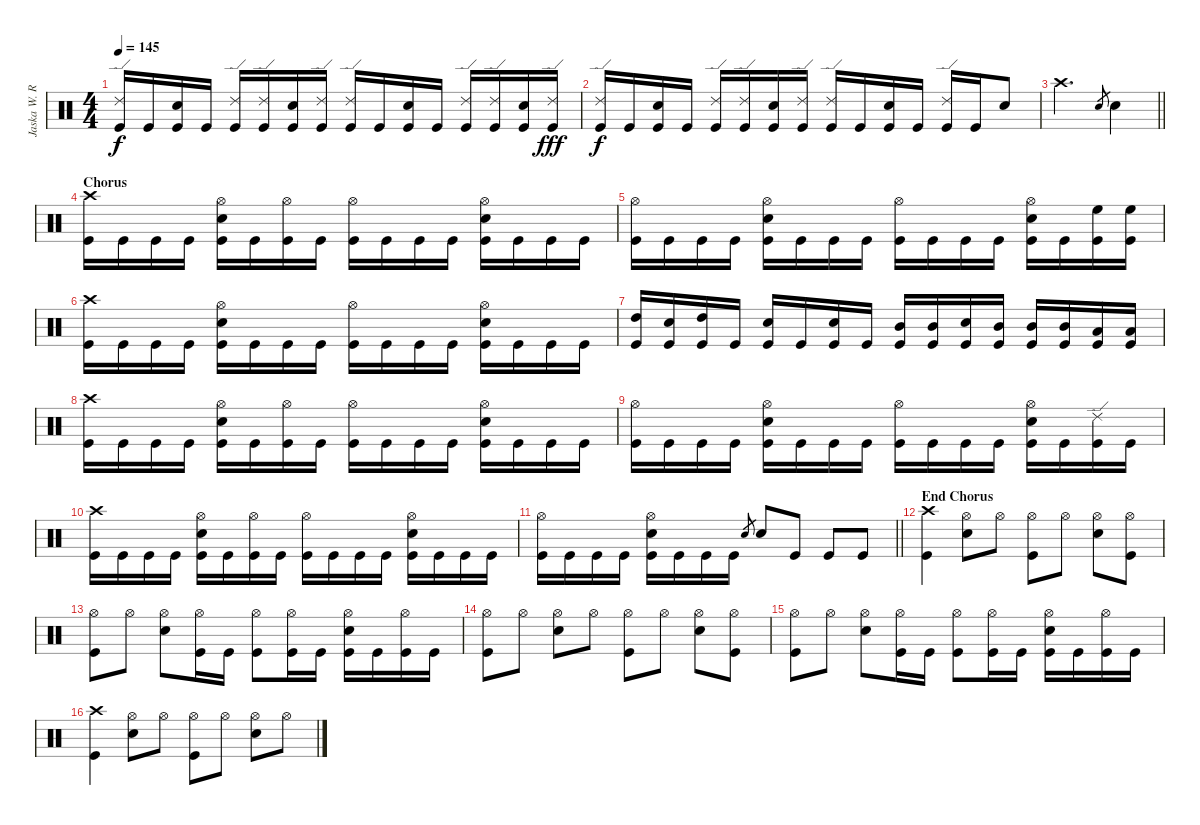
\track ("Jaska W. Raatikainen" "Jaska W. R") {instrument percussion}
\staff {score}
\articulation defaults
\ts (4 4)
\tempo 145
\clef neutral
\ks c
("Ride (edge) 2" "Kick (hit)").16{dy f} "Kick (hit)".16 ("Snare (hit) 2" "Kick (hit)").16 "Kick (hit)".16 ("Ride (edge) 2" "Kick (hit)").16 ("Ride (edge) 2" "Kick (hit)").16 ("Snare (hit) 2" "Kick (hit)").16 ("Ride (edge) 2" "Kick (hit)").16 ("Ride (edge) 2" "Kick (hit)").16 "Kick (hit)".16 ("Snare (hit) 2" "Kick (hit)").16 "Kick (hit)".16 ("Ride (edge) 2" "Kick (hit)").16 ("Ride (edge) 2" "Kick (hit)").16 ("Snare (hit) 2" "Kick (hit)").16 ("Ride (edge) 2" "Kick (hit)").16{dy fff} |
("Ride (edge) 2" "Kick (hit)").16{dy f} "Kick (hit)".16 ("Snare (hit) 2" "Kick (hit)").16 "Kick (hit)".16 ("Ride (edge) 2" "Kick (hit)").16 ("Ride (edge) 2" "Kick (hit)").16 ("Snare (hit) 2" "Kick (hit)").16 ("Ride (edge) 2" "Kick (hit)").16 ("Ride (edge) 2" "Kick (hit)").16 "Kick (hit)".16 ("Snare (hit) 2" "Kick (hit)").16 "Kick (hit)".16 ("Ride (edge) 2" "Kick (hit)").16 "Kick (hit)".16 "Snare (hit) 2".8 |
\barLineRight lightlight "Crash high (hit)".2{d} "Snare (hit) 2".8{gr} "Snare (hit) 2".4
|
\section ("" "Chorus")
("Crash high (hit)" "Kick (hit)").16 "Kick (hit)".16 "Kick (hit)".16 "Kick (hit)".16 ("Hi-Hat (open)" "Snare (hit) 2" "Kick (hit)").16 "Kick (hit)".16 ("Hi-Hat (open)" "Kick (hit)").16 "Kick (hit)".16 ("Hi-Hat (open)" "Kick (hit)").16 "Kick (hit)".16 "Kick (hit)".16 "Kick (hit)".16 ("Hi-Hat (open)" "Snare (hit) 2" "Kick (hit)").16 "Kick (hit)".16 "Kick (hit)".16 "Kick (hit)".16 |
("Hi-Hat (open)" "Kick (hit)").16 "Kick (hit)".16 "Kick (hit)".16 "Kick (hit)".16 ("Hi-Hat (open)" "Snare (hit) 2" "Kick (hit)").16 "Kick (hit)".16 "Kick (hit)".16 "Kick (hit)".16 ("Hi-Hat (open)" "Kick (hit)").16 "Kick (hit)".16 "Kick (hit)".16 "Kick (hit)".16 ("Hi-Hat (open)" "Snare (hit) 2" "Kick (hit)").16 "Kick (hit)".16 ("High Floor Tom (hit)" "Kick (hit)").16 ("High Floor Tom (hit)" "Kick (hit)").16 |
("Crash high (hit)" "Kick (hit)").16 "Kick (hit)".16 "Kick (hit)".16 "Kick (hit)".16 ("Hi-Hat (open)" "Snare (hit) 2" "Kick (hit)").16 "Kick (hit)".16 "Kick (hit)".16 "Kick (hit)".16 ("Hi-Hat (open)" "Kick (hit)").16 "Kick (hit)".16 "Kick (hit)".16 "Kick (hit)".16 ("Hi-Hat (open)" "Snare (hit) 2" "Kick (hit)").16 "Kick (hit)".16 "Kick (hit)".16 "Kick (hit)".16 |
("High Tom (hit)" "Kick (hit)").16 ("Snare (hit) 2" "Kick (hit)").16 ("High Tom (hit)" "Kick (hit)").16 "Kick (hit)".16 ("Snare (hit) 2" "Kick (hit)").16 "Kick (hit)".16 ("Snare (hit) 2" "Kick (hit)").16 "Kick (hit)".16 ("Mid Tom (hit)" "Kick (hit)").16 ("Mid Tom (hit)" "Kick (hit)").16 ("Snare (hit) 2" "Kick (hit)").16 ("Mid Tom (hit)" "Kick (hit)").16 ("Mid Tom (hit)" "Kick (hit)").16 ("Mid Tom (hit)" "Kick (hit)").16 ("Low Tom (hit)" "Kick (hit)").16 ("Low Tom (hit)" "Kick (hit)").16 |
("Crash high (hit)" "Kick (hit)").16 "Kick (hit)".16 "Kick (hit)".16 "Kick (hit)".16 ("Hi-Hat (open)" "Snare (hit) 2" "Kick (hit)").16 "Kick (hit)".16 ("Hi-Hat (open)" "Kick (hit)").16 "Kick (hit)".16 ("Hi-Hat (open)" "Kick (hit)").16 "Kick (hit)".16 "Kick (hit)".16 "Kick (hit)".16 ("Hi-Hat (open)" "Snare (hit) 2" "Kick (hit)").16 "Kick (hit)".16 "Kick (hit)".16 "Kick (hit)".16 |
("Hi-Hat (open)" "Kick (hit)").16 "Kick (hit)".16 "Kick (hit)".16 "Kick (hit)".16 ("Hi-Hat (open)" "Snare (hit) 2" "Kick (hit)").16 "Kick (hit)".16 "Kick (hit)".16 "Kick (hit)".16 ("Hi-Hat (open)" "Kick (hit)").16 "Kick (hit)".16 "Kick (hit)".16 "Kick (hit)".16 ("Hi-Hat (open)" "Snare (hit) 2" "Kick (hit)").16 "Kick (hit)".16 ("Ride (edge) 2" "Kick (hit)").16 "Kick (hit)".16 |
("Crash high (hit)" "Kick (hit)").16 "Kick (hit)".16 "Kick (hit)".16 "Kick (hit)".16 ("Hi-Hat (open)" "Snare (hit) 2" "Kick (hit)").16 "Kick (hit)".16 ("Hi-Hat (open)" "Kick (hit)").16 "Kick (hit)".16 ("Hi-Hat (open)" "Kick (hit)").16 "Kick (hit)".16 "Kick (hit)".16 "Kick (hit)".16 ("Hi-Hat (open)" "Snare (hit) 2" "Kick (hit)").16 "Kick (hit)".16 "Kick (hit)".16 "Kick (hit)".16 |
\barLineRight lightlight
("Hi-Hat (open)" "Kick (hit)").16 "Kick (hit)".16 "Kick (hit)".16 "Kick (hit)".16 ("Hi-Hat (open)" "Snare (hit) 2" "Kick (hit)").16 "Kick (hit)".16 "Kick (hit)".16 "Kick (hit)".16 "Snare (hit) 2".8{gr} "Snare (hit) 2".8 "Kick (hit)".8 "Kick (hit)".8 "Kick (hit)".8 |
\section ("" "End Chorus")
("Crash high (hit)" "Kick (hit)").4 ("Hi-Hat (open)" "Snare (hit) 2").8 "Hi-Hat (open)".8 ("Hi-Hat (open)" "Kick (hit)").8 "Hi-Hat (open)".8 ("Hi-Hat (open)" "Snare (hit) 2").8 ("Hi-Hat (open)" "Kick (hit)").8 |
("Hi-Hat (open)" "Kick (hit)").8 "Hi-Hat (open)".8 ("Hi-Hat (open)" "Snare (hit) 2").8 ("Hi-Hat (open)" "Kick (hit)").16 "Kick (hit)".16 ("Hi-Hat (open)" "Kick (hit)").8 ("Hi-Hat (open)" "Kick (hit)").16 "Kick (hit)".16 ("Hi-Hat (open)" "Snare (hit) 2" "Kick (hit)").16 "Kick (hit)".16 ("Hi-Hat (open)" "Kick (hit)").16 "Kick (hit)".16 |
("Hi-Hat (open)" "Kick (hit)").8 "Hi-Hat (open)".8 ("Hi-Hat (open)" "Snare (hit) 2").8 "Hi-Hat (open)".8 ("Hi-Hat (open)" "Kick (hit)").8 "Hi-Hat (open)".8 ("Hi-Hat (open)" "Snare (hit) 2").8 ("Hi-Hat (open)" "Kick (hit)").8 |
("Hi-Hat (open)" "Kick (hit)").8 "Hi-Hat (open)".8 ("Hi-Hat (open)" "Snare (hit) 2").8 ("Hi-Hat (open)" "Kick (hit)").16 "Kick (hit)".16 ("Hi-Hat (open)" "Kick (hit)").8 ("Hi-Hat (open)" "Kick (hit)").16 "Kick (hit)".16 ("Hi-Hat (open)" "Snare (hit) 2" "Kick (hit)").16 "Kick (hit)".16 ("Hi-Hat (open)" "Kick (hit)").16 "Kick (hit)".16 |
("Crash high (hit)" "Kick (hit)").4 ("Hi-Hat (open)" "Snare (hit) 2").8 "Hi-Hat (open)".8 ("Hi-Hat (open)" "Kick (hit)").8 "Hi-Hat (open)".8 ("Hi-Hat (open)" "Snare (hit) 2").8 "Hi-Hat (open)".8
